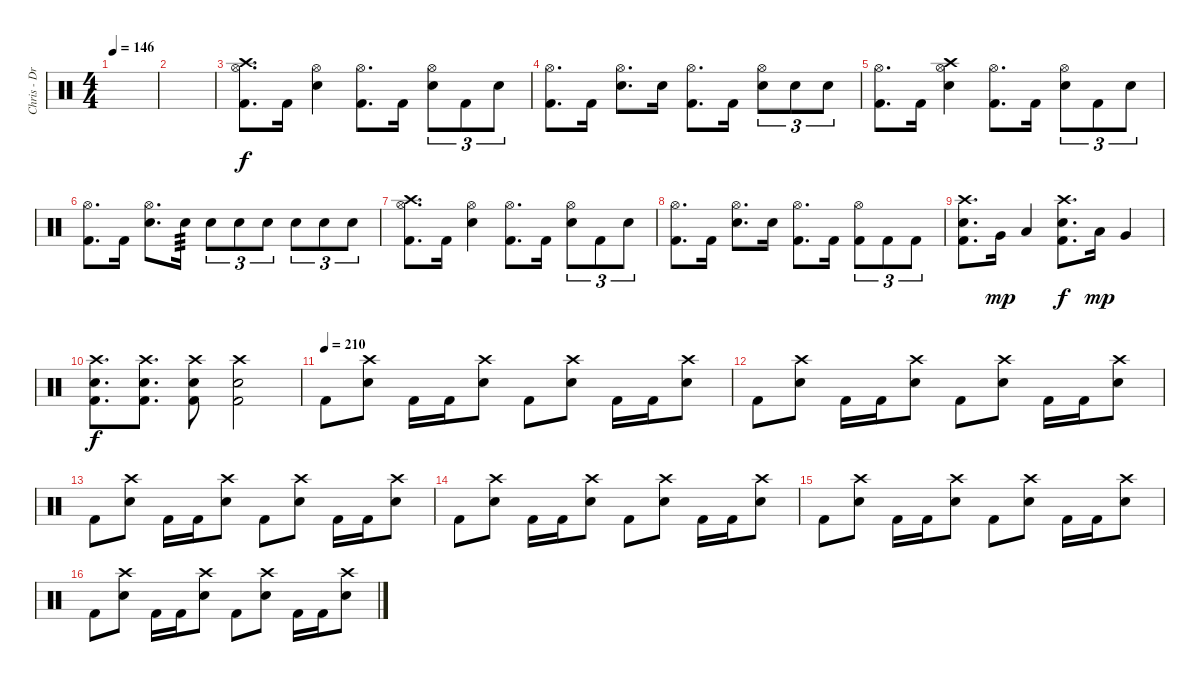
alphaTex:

\track ("Chris - Drums" "Chris - Dr") {instrument percussion}
\staff {score}
\articulation defaults
\ts (4 4)
\tempo 146
\clef neutral
\ks c
|
|
("Crash high (hit)" "Hi-Hat (open)" "Kick (hit) 2").8{d} "Kick (hit) 2".16 ("Hi-Hat (open)" "Electric Snare (hit)").4 ("Hi-Hat (open)" "Kick (hit) 2").8{d} "Kick (hit) 2".16 ("Hi-Hat (open)" "Electric Snare (hit)").8{tu (3 2)} "Kick (hit) 2".8{tu (3 2)} "Electric Snare (hit)".8{tu (3 2)} |
("Hi-Hat (open)" "Kick (hit) 2").8{d} "Kick (hit) 2".16 ("Hi-Hat (open)" "Electric Snare (hit)").8{d} "Electric Snare (hit)".16 ("Hi-Hat (open)" "Kick (hit) 2").8{d} "Kick (hit) 2".16 ("Hi-Hat (open)" "Electric Snare (hit)").8{tu (3 2)} "Electric Snare (hit)".8{tu (3 2)} "Electric Snare (hit)".8{tu (3 2)} |
("Hi-Hat (open)" "Kick (hit) 2").8{d} "Kick (hit) 2".16 ("Crash high (hit)" "Hi-Hat (open)" "Electric Snare (hit)").4 ("Hi-Hat (open)" "Kick (hit) 2").8{d} "Kick (hit) 2".16 ("Hi-Hat (open)" "Electric Snare (hit)").8{tu (3 2)} "Kick (hit) 2".8{tu (3 2)} "Electric Snare (hit)".8{tu (3 2)} |
("Hi-Hat (open)" "Kick (hit) 2").8{d} "Kick (hit) 2".16 ("Hi-Hat (open)" "Electric Snare (hit)").8{d} "Electric Snare (hit)".16{tp 3} "Electric Snare (hit)".8{tu (3 2)} "Electric Snare (hit)".8{tu (3 2)} "Electric Snare (hit)".8{tu (3 2)} "Electric Snare (hit)".8{tu (3 2)} "Electric Snare (hit)".8{tu (3 2)} "Electric Snare (hit)".8{tu (3 2)} |
("Crash high (hit)" "Hi-Hat (open)" "Kick (hit) 2").8{d} "Kick (hit) 2".16 ("Hi-Hat (open)" "Electric Snare (hit)").4 ("Hi-Hat (open)" "Kick (hit) 2").8{d} "Kick (hit) 2".16 ("Hi-Hat (open)" "Electric Snare (hit)").8{tu (3 2)} "Kick (hit) 2".8{tu (3 2)} "Electric Snare (hit)".8{tu (3 2)} |
("Hi-Hat (open)" "Kick (hit) 2").8{d} "Kick (hit) 2".16 ("Hi-Hat (open)" "Electric Snare (hit)").8{d} "Electric Snare (hit)".16 ("Hi-Hat (open)" "Kick (hit) 2").8{d} "Kick (hit) 2".16 ("Hi-Hat (open)" "Kick (hit) 2").8{tu (3 2)} "Kick (hit) 2".8{tu (3 2)} "Kick (hit) 2".8{tu (3 2)} |
("Crash high (hit)" "Electric Snare (hit)" "Kick (hit) 2").8{d} "Very Low Tom (hit)".16{dy mp} "Low Floor Tom (hit)".4 ("Crash high (hit)" "Electric Snare (hit)" "Kick (hit) 2").8{d dy f} "Low Tom (hit)".16{dy mp} "Very Low Tom (hit)".4 |
("Crash high (hit)" "Electric Snare (hit)" "Kick (hit) 2").8{d dy f} ("Crash high (hit)" "Electric Snare (hit)" "Kick (hit) 2").8{d} ("Crash high (hit)" "Electric Snare (hit)" "Kick (hit) 2").8 ("Crash high (hit)" "Electric Snare (hit)" "Kick (hit) 2").2 |
\tempo (210)
"Kick (hit) 2".8{volume 16} ("Crash high (hit)" "Electric Snare (hit)").8 "Kick (hit) 2".16 "Kick (hit) 2".16 ("Crash high (hit)" "Electric Snare (hit)").8 "Kick (hit) 2".8 ("Crash high (hit)" "Electric Snare (hit)").8 "Kick (hit) 2".16 "Kick (hit) 2".16 ("Crash high (hit)" "Electric Snare (hit)").8 |
"Kick (hit) 2".8 ("Crash high (hit)" "Electric Snare (hit)").8 "Kick (hit) 2".16 "Kick (hit) 2".16 ("Crash high (hit)" "Electric Snare (hit)").8 "Kick (hit) 2".8 ("Crash high (hit)" "Electric Snare (hit)").8 "Kick (hit) 2".16 "Kick (hit) 2".16 ("Crash high (hit)" "Electric Snare (hit)").8 |
"Kick (hit) 2".8 ("Crash high (hit)" "Electric Snare (hit)").8 "Kick (hit) 2".16 "Kick (hit) 2".16 ("Crash high (hit)" "Electric Snare (hit)").8 "Kick (hit) 2".8 ("Crash high (hit)" "Electric Snare (hit)").8 "Kick (hit) 2".16 "Kick (hit) 2".16 ("Crash high (hit)" "Electric Snare (hit)").8 |
"Kick (hit) 2".8 ("Crash high (hit)" "Electric Snare (hit)").8 "Kick (hit) 2".16 "Kick (hit) 2".16 ("Crash high (hit)" "Electric Snare (hit)").8 "Kick (hit) 2".8 ("Crash high (hit)" "Electric Snare (hit)").8 "Kick (hit) 2".16 "Kick (hit) 2".16 ("Crash high (hit)" "Electric Snare (hit)").8 |
"Kick (hit) 2".8 ("Crash high (hit)" "Electric Snare (hit)").8 "Kick (hit) 2".16 "Kick (hit) 2".16 ("Crash high (hit)" "Electric Snare (hit)").8 "Kick (hit) 2".8 ("Crash high (hit)" "Electric Snare (hit)").8 "Kick (hit) 2".16 "Kick (hit) 2".16 ("Crash high (hit)" "Electric Snare (hit)").8 |
"Kick (hit) 2".8 ("Crash high (hit)" "Electric Snare (hit)").8 "Kick (hit) 2".16 "Kick (hit) 2".16 ("Crash high (hit)" "Electric Snare (hit)").8 "Kick (hit) 2".8 ("Crash high (hit)" "Electric Snare (hit)").8 "Kick (hit) 2".16 "Kick (hit) 2".16 ("Crash high (hit)" "Electric Snare (hit)").8
